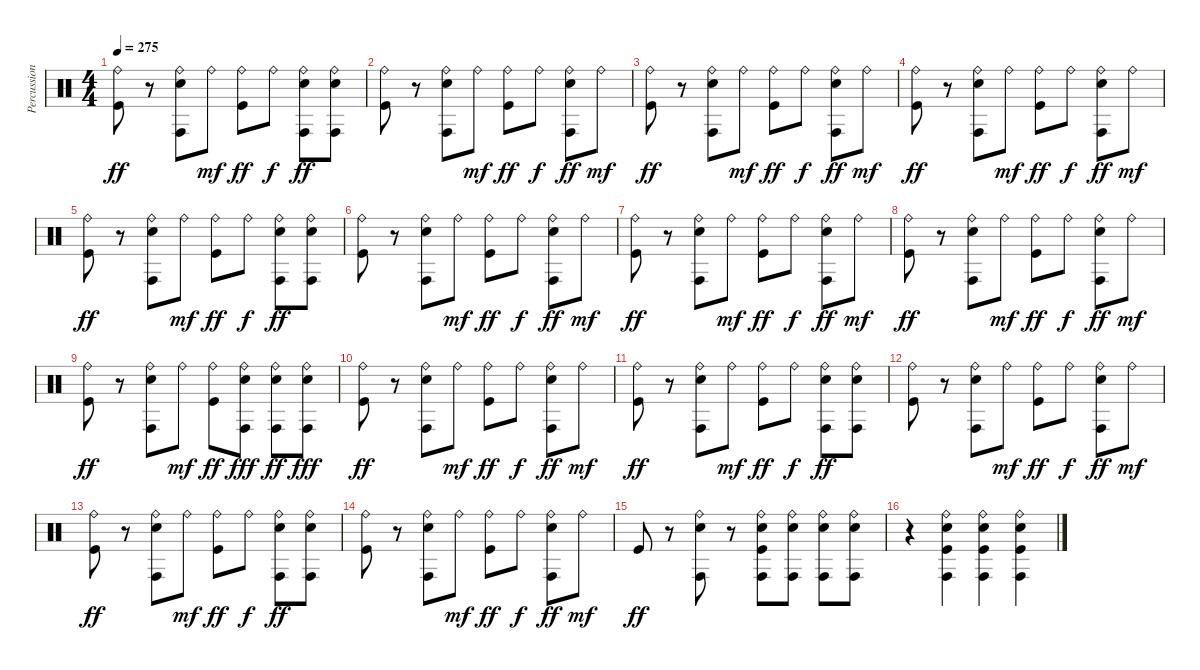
\track ("Percussion" "Percussion") {instrument percussion}
\staff {score}
\articulation defaults
\ts (4 4)
\tempo 275
\clef neutral
\ks c
("Ride (bell)" "Kick (hit)").8{dy ff} r.8 ("Ride (bell)" "Conga high (hit)" "Electric Snare (hit)").8 "Ride (bell)".8{dy mf} ("Ride (bell)" "Kick (hit)").8{dy ff} "Ride (bell)".8{dy f} ("Ride (bell)" "Conga high (hit)" "Electric Snare (hit)").8{dy ff} ("Ride (bell)" "Conga high (hit)" "Electric Snare (hit)").8 |
("Ride (bell)" "Kick (hit)").8 r.8 ("Ride (bell)" "Conga high (hit)" "Electric Snare (hit)").8 "Ride (bell)".8{dy mf} ("Ride (bell)" "Kick (hit)").8{dy ff} "Ride (bell)".8{dy f} ("Ride (bell)" "Conga high (hit)" "Electric Snare (hit)").8{dy ff} "Ride (bell)".8{dy mf} |
("Ride (bell)" "Kick (hit)").8{dy ff} r.8 ("Ride (bell)" "Conga high (hit)" "Electric Snare (hit)").8 "Ride (bell)".8{dy mf} ("Ride (bell)" "Kick (hit)").8{dy ff} "Ride (bell)".8{dy f} ("Ride (bell)" "Conga high (hit)" "Electric Snare (hit)").8{dy ff} "Ride (bell)".8{dy mf} |
("Ride (bell)" "Kick (hit)").8{dy ff} r.8 ("Ride (bell)" "Conga high (hit)" "Electric Snare (hit)").8 "Ride (bell)".8{dy mf} ("Ride (bell)" "Kick (hit)").8{dy ff} "Ride (bell)".8{dy f} ("Ride (bell)" "Conga high (hit)" "Electric Snare (hit)").8{dy ff} "Ride (bell)".8{dy mf} |
("Ride (bell)" "Kick (hit)").8{dy ff} r.8 ("Ride (bell)" "Conga high (hit)" "Electric Snare (hit)").8 "Ride (bell)".8{dy mf} ("Ride (bell)" "Kick (hit)").8{dy ff} "Ride (bell)".8{dy f} ("Ride (bell)" "Conga high (hit)" "Electric Snare (hit)").8{dy ff} ("Ride (bell)" "Conga high (hit)" "Electric Snare (hit)").8 |
("Ride (bell)" "Kick (hit)").8 r.8 ("Ride (bell)" "Conga high (hit)" "Electric Snare (hit)").8 "Ride (bell)".8{dy mf} ("Ride (bell)" "Kick (hit)").8{dy ff} "Ride (bell)".8{dy f} ("Ride (bell)" "Conga high (hit)" "Electric Snare (hit)").8{dy ff} "Ride (bell)".8{dy mf} |
("Ride (bell)" "Kick (hit)").8{dy ff} r.8 ("Ride (bell)" "Conga high (hit)" "Electric Snare (hit)").8 "Ride (bell)".8{dy mf} ("Ride (bell)" "Kick (hit)").8{dy ff} "Ride (bell)".8{dy f} ("Ride (bell)" "Conga high (hit)" "Electric Snare (hit)").8{dy ff} "Ride (bell)".8{dy mf} |
("Ride (bell)" "Kick (hit)").8{dy ff} r.8 ("Ride (bell)" "Conga high (hit)" "Electric Snare (hit)").8 "Ride (bell)".8{dy mf} ("Ride (bell)" "Kick (hit)").8{dy ff} "Ride (bell)".8{dy f} ("Ride (bell)" "Conga high (hit)" "Electric Snare (hit)").8{dy ff} "Ride (bell)".8{dy mf} |
("Ride (bell)" "Kick (hit)").8{dy ff} r.8 ("Ride (bell)" "Conga high (hit)" "Electric Snare (hit)").8 "Ride (bell)".8{dy mf} ("Ride (bell)" "Kick (hit)").8{dy ff} ("Ride (bell)" "Conga high (hit)" "Electric Snare (hit)").8{dy fff} ("Ride (bell)" "Conga high (hit)" "Electric Snare (hit)").8{dy ff} ("Ride (bell)" "Conga high (hit)" "Electric Snare (hit)").8{dy fff} |
("Ride (bell)" "Kick (hit)").8{dy ff} r.8 ("Ride (bell)" "Conga high (hit)" "Electric Snare (hit)").8 "Ride (bell)".8{dy mf} ("Ride (bell)" "Kick (hit)").8{dy ff} "Ride (bell)".8{dy f} ("Ride (bell)" "Conga high (hit)" "Electric Snare (hit)").8{dy ff} "Ride (bell)".8{dy mf} |
("Ride (bell)" "Kick (hit)").8{dy ff} r.8 ("Ride (bell)" "Conga high (hit)" "Electric Snare (hit)").8 "Ride (bell)".8{dy mf} ("Ride (bell)" "Kick (hit)").8{dy ff} "Ride (bell)".8{dy f} ("Ride (bell)" "Conga high (hit)" "Electric Snare (hit)").8{dy ff} ("Ride (bell)" "Conga high (hit)" "Electric Snare (hit)").8 |
("Ride (bell)" "Kick (hit)").8 r.8 ("Ride (bell)" "Conga high (hit)" "Electric Snare (hit)").8 "Ride (bell)".8{dy mf} ("Ride (bell)" "Kick (hit)").8{dy ff} "Ride (bell)".8{dy f} ("Ride (bell)" "Conga high (hit)" "Electric Snare (hit)").8{dy ff} "Ride (bell)".8{dy mf} |
("Ride (bell)" "Kick (hit)").8{dy ff} r.8 ("Ride (bell)" "Conga high (hit)" "Electric Snare (hit)").8 "Ride (bell)".8{dy mf} ("Ride (bell)" "Kick (hit)").8{dy ff} "Ride (bell)".8{dy f} ("Ride (bell)" "Conga high (hit)" "Electric Snare (hit)").8{dy ff} ("Ride (bell)" "Conga high (hit)" "Electric Snare (hit)").8 |
("Ride (bell)" "Kick (hit)").8 r.8 ("Ride (bell)" "Conga high (hit)" "Electric Snare (hit)").8 "Ride (bell)".8{dy mf} ("Ride (bell)" "Kick (hit)").8{dy ff} "Ride (bell)".8{dy f} ("Ride (bell)" "Conga high (hit)" "Electric Snare (hit)").8{dy ff} "Ride (bell)".8{dy mf} |
"Kick (hit)".8{dy ff} r.8 ("Ride (bell)" "Conga high (hit)" "Electric Snare (hit)").8 r.8 ("Ride (bell)" "Conga high (hit)" "Electric Snare (hit)" "Kick (hit)").8 ("Ride (bell)" "Conga high (hit)" "Electric Snare (hit)").8 ("Ride (bell)" "Conga high (hit)" "Electric Snare (hit)").8 ("Ride (bell)" "Conga high (hit)" "Electric Snare (hit)").8 |
r.4 ("Ride (bell)" "Conga high (hit)" "Electric Snare (hit)" "Kick (hit)").4 ("Ride (bell)" "Conga high (hit)" "Electric Snare (hit)" "Kick (hit)").4 ("Ride (bell)" "Conga high (hit)" "Electric Snare (hit)" "Kick (hit)").4
